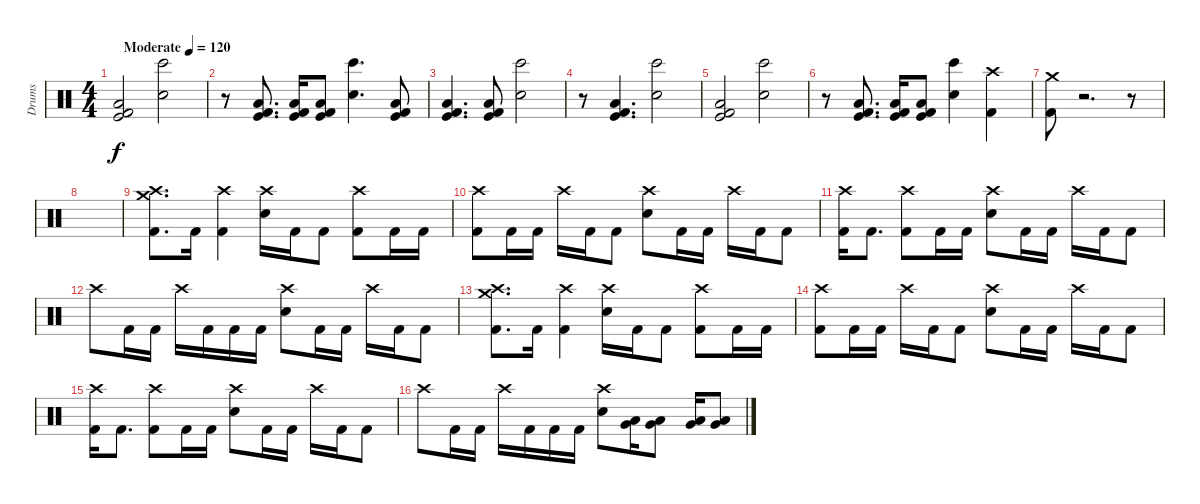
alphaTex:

\track ("Drums" "Drums") {instrument percussion}
\staff {score}
\articulation defaults
\ts (4 4)
\tempo (120 "Moderate")
\clef neutral
\ks c
("Low Floor Tom (hit)" "Kick (hit) 2" "Kick (hit)").2{dy f} ("Bongo High (hit)" "Snare (hit) 2").2 |
r.8 ("Low Floor Tom (hit)" "Kick (hit) 2" "Kick (hit)").8{d} ("Low Floor Tom (hit)" "Kick (hit) 2" "Kick (hit)").16 ("Low Floor Tom (hit)" "Kick (hit) 2" "Kick (hit)").8 ("Bongo High (hit)" "Snare (hit) 2").4{d} ("Low Floor Tom (hit)" "Kick (hit) 2" "Kick (hit)").8 |
("Low Floor Tom (hit)" "Kick (hit) 2" "Kick (hit)").4{d} ("Low Floor Tom (hit)" "Kick (hit) 2" "Kick (hit)").8 ("Bongo High (hit)" "Snare (hit) 2").2 |
r.8 ("Low Floor Tom (hit)" "Kick (hit) 2" "Kick (hit)").4{d} ("Bongo High (hit)" "Snare (hit) 2").2 |
("Low Floor Tom (hit)" "Kick (hit) 2" "Kick (hit)").2 ("Bongo High (hit)" "Snare (hit) 2").2 |
r.8 ("Low Floor Tom (hit)" "Kick (hit) 2" "Kick (hit)").8{d} ("Low Floor Tom (hit)" "Kick (hit) 2" "Kick (hit)").16 ("Low Floor Tom (hit)" "Kick (hit) 2" "Kick (hit)").8 ("Bongo High (hit)" "Snare (hit) 2").4 ("Crash high (hit)" "Kick (hit) 2").4 |
("Crash medium (hit)" "Kick (hit) 2").8 r.2{d volume 0} r.8 |
|
("Crash high (hit)" "Crash medium (hit)" "Kick (hit) 2").8{d volume 16} "Kick (hit) 2".16 ("Crash high (hit)" "Kick (hit) 2").4 ("Crash high (hit)" "Electric Snare (hit)").16 "Kick (hit) 2".16 "Kick (hit) 2".8 ("Crash high (hit)" "Kick (hit) 2").8 "Kick (hit) 2".16 "Kick (hit) 2".16 |
("Crash high (hit)" "Kick (hit) 2").8 "Kick (hit) 2".16 "Kick (hit) 2".16 "Crash high (hit)".16 "Kick (hit) 2".16 "Kick (hit) 2".8 ("Crash high (hit)" "Electric Snare (hit)").8 "Kick (hit) 2".16 "Kick (hit) 2".16 "Crash high (hit)".16 "Kick (hit) 2".16 "Kick (hit) 2".8 |
("Crash high (hit)" "Kick (hit) 2").16 "Kick (hit) 2".8{d} ("Crash high (hit)" "Kick (hit) 2").8 "Kick (hit) 2".16 "Kick (hit) 2".16 ("Crash high (hit)" "Electric Snare (hit)").8 "Kick (hit) 2".16 "Kick (hit) 2".16 "Crash high (hit)".16 "Kick (hit) 2".16 "Kick (hit) 2".8 |
"Crash high (hit)".8 "Kick (hit) 2".16 "Kick (hit) 2".16 "Crash high (hit)".16 "Kick (hit) 2".16 "Kick (hit) 2".16 "Kick (hit) 2".16 ("Crash high (hit)" "Electric Snare (hit)").8 "Kick (hit) 2".16 "Kick (hit) 2".16 "Crash high (hit)".16 "Kick (hit) 2".16 "Kick (hit) 2".8 |
("Crash high (hit)" "Crash medium (hit)" "Kick (hit) 2").8{d} "Kick (hit) 2".16 ("Crash high (hit)" "Kick (hit) 2").4 ("Crash high (hit)" "Electric Snare (hit)").16 "Kick (hit) 2".16 "Kick (hit) 2".8 ("Crash high (hit)" "Kick (hit) 2").8 "Kick (hit) 2".16 "Kick (hit) 2".16 |
("Crash high (hit)" "Kick (hit) 2").8 "Kick (hit) 2".16 "Kick (hit) 2".16 "Crash high (hit)".16 "Kick (hit) 2".16 "Kick (hit) 2".8 ("Crash high (hit)" "Electric Snare (hit)").8 "Kick (hit) 2".16 "Kick (hit) 2".16 "Crash high (hit)".16 "Kick (hit) 2".16 "Kick (hit) 2".8 |
("Crash high (hit)" "Kick (hit) 2").16 "Kick (hit) 2".8{d} ("Crash high (hit)" "Kick (hit) 2").8 "Kick (hit) 2".16 "Kick (hit) 2".16 ("Crash high (hit)" "Electric Snare (hit)").8 "Kick (hit) 2".16 "Kick (hit) 2".16 "Crash high (hit)".16 "Kick (hit) 2".16 "Kick (hit) 2".8 |
"Crash high (hit)".8 "Kick (hit) 2".16 "Kick (hit) 2".16 "Crash high (hit)".16 "Kick (hit) 2".16 "Kick (hit) 2".16 "Kick (hit) 2".16 ("Crash high (hit)" "Electric Snare (hit)").8 ("Very Low Tom (hit)" "Low Tom (hit)").16 ("Very Low Tom (hit)" "Low Tom (hit)").8 ("Very Low Tom (hit)" "Low Floor Tom (hit)").16 ("Very Low Tom (hit)" "Low Floor Tom (hit)").8
